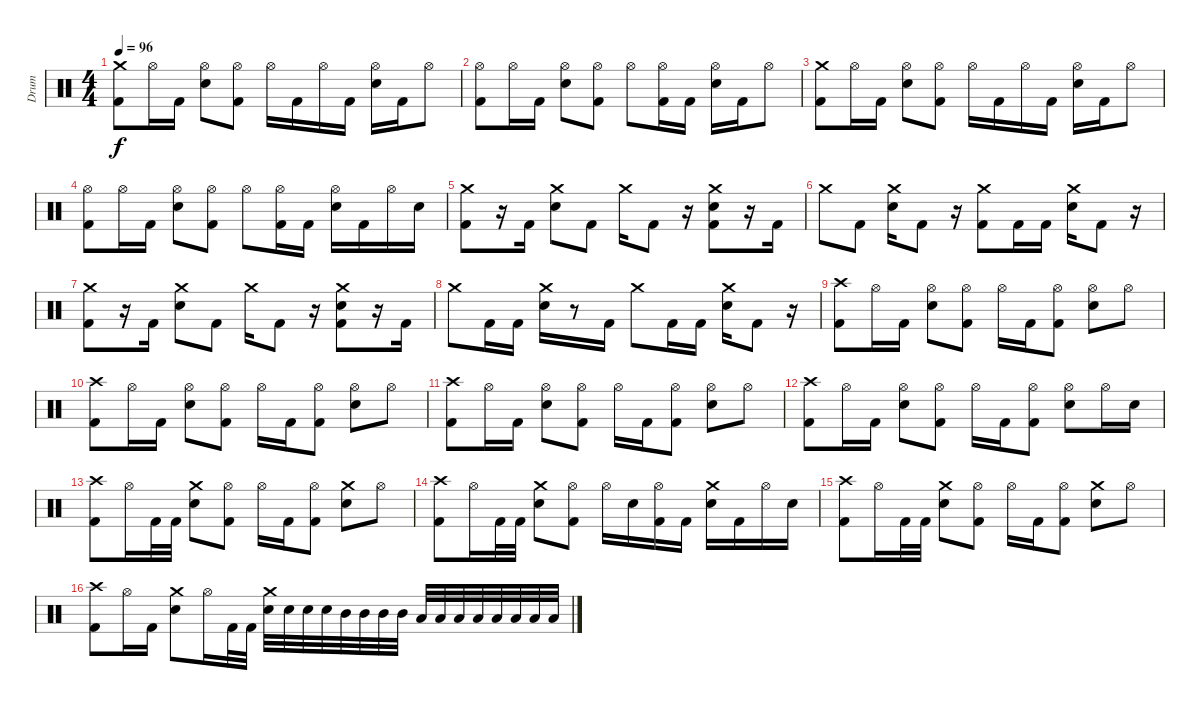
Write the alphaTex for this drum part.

\track ("Drum" "Drum") {instrument percussion}
\staff {score}
\articulation defaults
\ts (4 4)
\tempo 96
\clef neutral
\ks c
("Crash medium (hit)" "Kick (hit) 2").8{dy f} "Hi-Hat (open)".16 "Kick (hit) 2".16 ("Hi-Hat (open)" "Snare (hit) 2").8 ("Hi-Hat (open)" "Kick (hit) 2").8 "Hi-Hat (open)".16 "Kick (hit) 2".16 "Hi-Hat (open)".16 "Kick (hit) 2".16 ("Hi-Hat (open)" "Snare (hit) 2").16 "Kick (hit) 2".16 "Hi-Hat (open)".8 |
("Hi-Hat (open)" "Kick (hit) 2").8 "Hi-Hat (open)".16 "Kick (hit) 2".16 ("Hi-Hat (open)" "Snare (hit) 2").8 ("Hi-Hat (open)" "Kick (hit) 2").8 "Hi-Hat (open)".8 ("Hi-Hat (open)" "Kick (hit) 2").16 "Kick (hit) 2".16 ("Hi-Hat (open)" "Snare (hit) 2").16 "Kick (hit) 2".16 "Hi-Hat (open)".8 |
("Crash medium (hit)" "Kick (hit) 2").8 "Hi-Hat (open)".16 "Kick (hit) 2".16 ("Hi-Hat (open)" "Snare (hit) 2").8 ("Hi-Hat (open)" "Kick (hit) 2").8 "Hi-Hat (open)".16 "Kick (hit) 2".16 "Hi-Hat (open)".16 "Kick (hit) 2".16 ("Hi-Hat (open)" "Snare (hit) 2").16 "Kick (hit) 2".16 "Hi-Hat (open)".8 |
("Hi-Hat (open)" "Kick (hit) 2").8 "Hi-Hat (open)".16 "Kick (hit) 2".16 ("Hi-Hat (open)" "Snare (hit) 2").8 ("Hi-Hat (open)" "Kick (hit) 2").8 "Hi-Hat (open)".8 ("Hi-Hat (open)" "Kick (hit) 2").16 "Kick (hit) 2".16 ("Hi-Hat (open)" "Snare (hit) 2").16 "Kick (hit) 2".16 "Hi-Hat (open)".16 "Snare (hit) 2".16 |
("Crash medium (hit)" "Kick (hit) 2").8 r.16 "Kick (hit) 2".16 ("Crash medium (hit)" "Snare (hit) 2").8 "Kick (hit) 2".8 "Crash medium (hit)".16 "Kick (hit) 2".8 r.16 ("Crash medium (hit)" "Snare (hit) 2" "Kick (hit) 2").8 r.16 "Kick (hit) 2".16 |
"Crash medium (hit)".8 "Kick (hit) 2".8 ("Crash medium (hit)" "Snare (hit) 2").16 "Kick (hit) 2".8 r.16 ("Crash medium (hit)" "Kick (hit) 2").8 "Kick (hit) 2".16 "Kick (hit) 2".16 ("Crash medium (hit)" "Snare (hit) 2").16 "Kick (hit) 2".8 r.16 |
("Crash medium (hit)" "Kick (hit) 2").8 r.16 "Kick (hit) 2".16 ("Crash medium (hit)" "Snare (hit) 2").8 "Kick (hit) 2".8 "Crash medium (hit)".16 "Kick (hit) 2".8 r.16 ("Crash medium (hit)" "Snare (hit) 2" "Kick (hit) 2").8 r.16 "Kick (hit) 2".16 |
"Crash medium (hit)".8 "Kick (hit) 2".16 "Kick (hit) 2".16 ("Crash medium (hit)" "Snare (hit) 2").16 r.8 "Kick (hit) 2".16 "Crash medium (hit)".8 "Kick (hit) 2".16 "Kick (hit) 2".16 ("Crash medium (hit)" "Snare (hit) 2").16 "Kick (hit) 2".8 r.16 |
("Crash high (hit)" "Kick (hit) 2").8 "Hi-Hat (open)".16 "Kick (hit) 2".16 ("Hi-Hat (open)" "Snare (hit) 2").8 ("Hi-Hat (open)" "Kick (hit) 2").8 "Hi-Hat (open)".16 "Kick (hit) 2".16 ("Hi-Hat (open)" "Kick (hit) 2").8 ("Hi-Hat (open)" "Snare (hit) 2").8 "Hi-Hat (open)".8 |
("Crash high (hit)" "Kick (hit) 2").8 "Hi-Hat (open)".16 "Kick (hit) 2".16 ("Hi-Hat (open)" "Snare (hit) 2").8 ("Hi-Hat (open)" "Kick (hit) 2").8 "Hi-Hat (open)".16 "Kick (hit) 2".16 ("Hi-Hat (open)" "Kick (hit) 2").8 ("Hi-Hat (open)" "Snare (hit) 2").8 "Hi-Hat (open)".8 |
("Crash high (hit)" "Kick (hit) 2").8 "Hi-Hat (open)".16 "Kick (hit) 2".16 ("Hi-Hat (open)" "Snare (hit) 2").8 ("Hi-Hat (open)" "Kick (hit) 2").8 "Hi-Hat (open)".16 "Kick (hit) 2".16 ("Hi-Hat (open)" "Kick (hit) 2").8 ("Hi-Hat (open)" "Snare (hit) 2").8 "Hi-Hat (open)".8 |
("Crash high (hit)" "Kick (hit) 2").8 "Hi-Hat (open)".16 "Kick (hit) 2".16 ("Hi-Hat (open)" "Snare (hit) 2").8 ("Hi-Hat (open)" "Kick (hit) 2").8 "Hi-Hat (open)".16 "Kick (hit) 2".16 ("Hi-Hat (open)" "Kick (hit) 2").8 ("Hi-Hat (open)" "Snare (hit) 2").8 "Hi-Hat (open)".16 "Snare (hit) 2".16 |
("Crash high (hit)" "Kick (hit) 2").8 "Hi-Hat (open)".16 "Kick (hit) 2".32 "Kick (hit) 2".32 ("Crash medium (hit)" "Snare (hit) 2").8 ("Hi-Hat (open)" "Kick (hit) 2").8 "Hi-Hat (open)".16 "Kick (hit) 2".16 ("Hi-Hat (open)" "Kick (hit) 2").8 ("Crash medium (hit)" "Snare (hit) 2").8 "Hi-Hat (open)".8 |
("Crash high (hit)" "Kick (hit) 2").8 "Hi-Hat (open)".16 "Kick (hit) 2".32 "Kick (hit) 2".32 ("Crash medium (hit)" "Snare (hit) 2").8 ("Hi-Hat (open)" "Kick (hit) 2").8 "Hi-Hat (open)".16 "Snare (hit) 2".16 ("Hi-Hat (open)" "Kick (hit) 2").16 "Kick (hit) 2".16 ("Crash medium (hit)" "Snare (hit) 2").16 "Kick (hit) 2".16 "Hi-Hat (open)".16 "Snare (hit) 2".16 |
("Crash high (hit)" "Kick (hit) 2").8 "Hi-Hat (open)".16 "Kick (hit) 2".32 "Kick (hit) 2".32 ("Crash medium (hit)" "Snare (hit) 2").8 ("Hi-Hat (open)" "Kick (hit) 2").8 "Hi-Hat (open)".16 "Kick (hit) 2".16 ("Hi-Hat (open)" "Kick (hit) 2").8 ("Crash medium (hit)" "Snare (hit) 2").8 "Hi-Hat (open)".8 |
("Crash high (hit)" "Kick (hit) 2").8 "Hi-Hat (open)".16 "Kick (hit) 2".16 ("Crash medium (hit)" "Snare (hit) 2").8 "Hi-Hat (open)".16 "Kick (hit) 2".32 "Kick (hit) 2".32 ("Crash medium (hit)" "Snare (hit) 2").32 "Snare (hit) 2".32 "Snare (hit) 2".32 "Snare (hit) 2".32 "Mid Tom (hit)".32 "Mid Tom (hit)".32 "Mid Tom (hit)".32 "Mid Tom (hit)".32 "Low Tom (hit)".32 "Low Tom (hit)".32 "Low Tom (hit)".32 "Low Tom (hit)".32 "Low Floor Tom (hit)".32 "Low Floor Tom (hit)".32 "Low Floor Tom (hit)".32 "Low Floor Tom (hit)".32
